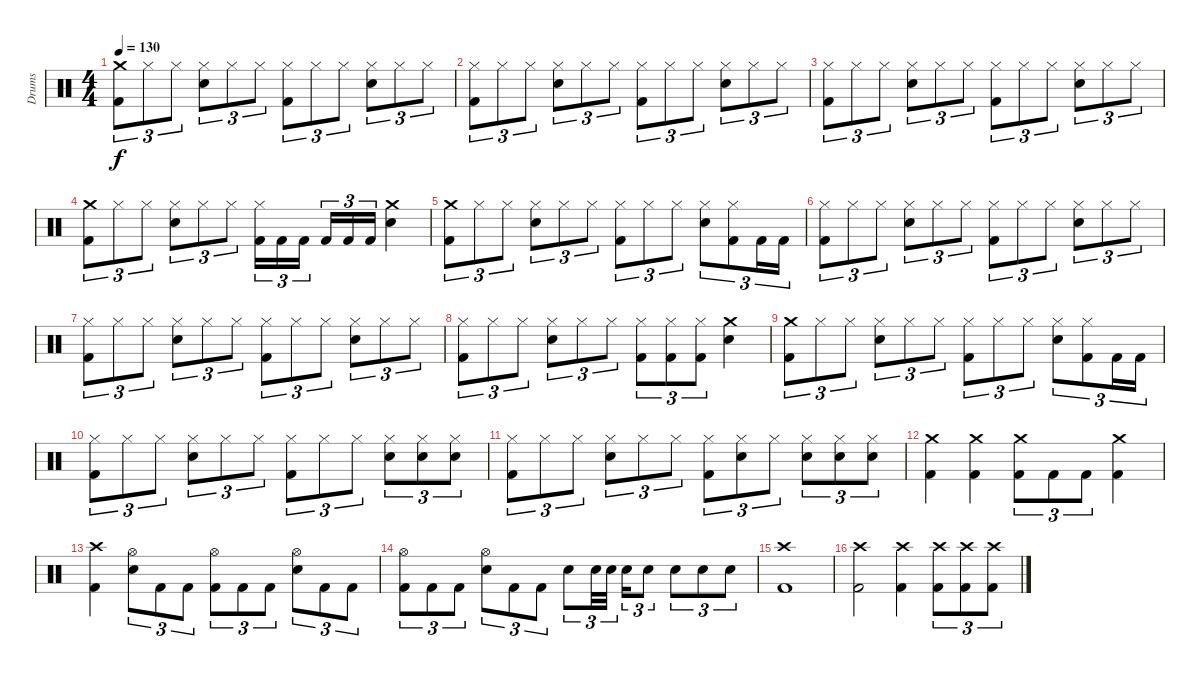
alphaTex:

\track ("Drums" "Drums") {instrument percussion}
\staff {score}
\articulation defaults
\ts (4 4)
\tempo 130
\clef neutral
\ks c
("Crash medium (hit)" "Kick (hit) 2").8{tu (3 2) dy f} "Hi-Hat (closed)".8{tu (3 2)} "Hi-Hat (closed)".8{tu (3 2)} ("Hi-Hat (closed)" "Electric Snare (hit)").8{tu (3 2)} "Hi-Hat (closed)".8{tu (3 2)} "Hi-Hat (closed)".8{tu (3 2)} ("Hi-Hat (closed)" "Kick (hit) 2").8{tu (3 2)} "Hi-Hat (closed)".8{tu (3 2)} "Hi-Hat (closed)".8{tu (3 2)} ("Hi-Hat (closed)" "Electric Snare (hit)").8{tu (3 2)} "Hi-Hat (closed)".8{tu (3 2)} "Hi-Hat (closed)".8{tu (3 2)} |
("Hi-Hat (closed)" "Kick (hit) 2").8{tu (3 2)} "Hi-Hat (closed)".8{tu (3 2)} "Hi-Hat (closed)".8{tu (3 2)} ("Hi-Hat (closed)" "Electric Snare (hit)").8{tu (3 2)} "Hi-Hat (closed)".8{tu (3 2)} "Hi-Hat (closed)".8{tu (3 2)} ("Hi-Hat (closed)" "Kick (hit) 2").8{tu (3 2)} "Hi-Hat (closed)".8{tu (3 2)} "Hi-Hat (closed)".8{tu (3 2)} ("Hi-Hat (closed)" "Electric Snare (hit)").8{tu (3 2)} "Hi-Hat (closed)".8{tu (3 2)} "Hi-Hat (closed)".8{tu (3 2)} |
("Hi-Hat (closed)" "Kick (hit) 2").8{tu (3 2)} "Hi-Hat (closed)".8{tu (3 2)} "Hi-Hat (closed)".8{tu (3 2)} ("Hi-Hat (closed)" "Electric Snare (hit)").8{tu (3 2)} "Hi-Hat (closed)".8{tu (3 2)} "Hi-Hat (closed)".8{tu (3 2)} ("Hi-Hat (closed)" "Kick (hit) 2").8{tu (3 2)} "Hi-Hat (closed)".8{tu (3 2)} "Hi-Hat (closed)".8{tu (3 2)} ("Hi-Hat (closed)" "Electric Snare (hit)").8{tu (3 2)} "Hi-Hat (closed)".8{tu (3 2)} "Hi-Hat (closed)".8{tu (3 2)} |
("Crash medium (hit)" "Kick (hit) 2").8{tu (3 2)} "Hi-Hat (closed)".8{tu (3 2)} "Hi-Hat (closed)".8{tu (3 2)} ("Hi-Hat (closed)" "Electric Snare (hit)").8{tu (3 2)} "Hi-Hat (closed)".8{tu (3 2)} "Hi-Hat (closed)".8{tu (3 2)} ("Hi-Hat (closed)" "Kick (hit) 2").16{tu (3 2)} "Kick (hit) 2".16{tu (3 2)} "Kick (hit) 2".16{tu (3 2) beam splitsecondary} "Kick (hit) 2".16{tu (3 2)} "Kick (hit) 2".16{tu (3 2)} "Kick (hit) 2".16{tu (3 2)} ("Crash medium (hit)" "Electric Snare (hit)").4 |
("Crash medium (hit)" "Kick (hit) 2").8{tu (3 2)} "Hi-Hat (closed)".8{tu (3 2)} "Hi-Hat (closed)".8{tu (3 2)} ("Hi-Hat (closed)" "Electric Snare (hit)").8{tu (3 2)} "Hi-Hat (closed)".8{tu (3 2)} "Hi-Hat (closed)".8{tu (3 2)} ("Hi-Hat (closed)" "Kick (hit) 2").8{tu (3 2)} "Hi-Hat (closed)".8{tu (3 2)} "Hi-Hat (closed)".8{tu (3 2)} ("Hi-Hat (closed)" "Electric Snare (hit)").8{tu (3 2)} ("Hi-Hat (closed)" "Kick (hit) 2").8{tu (3 2)} "Kick (hit) 2".16{tu (3 2)} "Kick (hit) 2".16{tu (3 2)} |
("Hi-Hat (closed)" "Kick (hit) 2").8{tu (3 2)} "Hi-Hat (closed)".8{tu (3 2)} "Hi-Hat (closed)".8{tu (3 2)} ("Hi-Hat (closed)" "Electric Snare (hit)").8{tu (3 2)} "Hi-Hat (closed)".8{tu (3 2)} "Hi-Hat (closed)".8{tu (3 2)} ("Hi-Hat (closed)" "Kick (hit) 2").8{tu (3 2)} "Hi-Hat (closed)".8{tu (3 2)} "Hi-Hat (closed)".8{tu (3 2)} ("Hi-Hat (closed)" "Electric Snare (hit)").8{tu (3 2)} "Hi-Hat (closed)".8{tu (3 2)} "Hi-Hat (closed)".8{tu (3 2)} |
("Hi-Hat (closed)" "Kick (hit) 2").8{tu (3 2)} "Hi-Hat (closed)".8{tu (3 2)} "Hi-Hat (closed)".8{tu (3 2)} ("Hi-Hat (closed)" "Electric Snare (hit)").8{tu (3 2)} "Hi-Hat (closed)".8{tu (3 2)} "Hi-Hat (closed)".8{tu (3 2)} ("Hi-Hat (closed)" "Kick (hit) 2").8{tu (3 2)} "Hi-Hat (closed)".8{tu (3 2)} "Hi-Hat (closed)".8{tu (3 2)} ("Hi-Hat (closed)" "Electric Snare (hit)").8{tu (3 2)} "Hi-Hat (closed)".8{tu (3 2)} "Hi-Hat (closed)".8{tu (3 2)} |
("Hi-Hat (closed)" "Kick (hit) 2").8{tu (3 2)} "Hi-Hat (closed)".8{tu (3 2)} "Hi-Hat (closed)".8{tu (3 2)} ("Hi-Hat (closed)" "Electric Snare (hit)").8{tu (3 2)} "Hi-Hat (closed)".8{tu (3 2)} "Hi-Hat (closed)".8{tu (3 2)} ("Hi-Hat (closed)" "Kick (hit) 2").8{tu (3 2)} ("Hi-Hat (closed)" "Kick (hit) 2").8{tu (3 2)} ("Hi-Hat (closed)" "Kick (hit) 2").8{tu (3 2)} ("Crash medium (hit)" "Electric Snare (hit)").4 |
("Crash medium (hit)" "Kick (hit) 2").8{tu (3 2)} "Hi-Hat (closed)".8{tu (3 2)} "Hi-Hat (closed)".8{tu (3 2)} ("Hi-Hat (closed)" "Electric Snare (hit)").8{tu (3 2)} "Hi-Hat (closed)".8{tu (3 2)} "Hi-Hat (closed)".8{tu (3 2)} ("Hi-Hat (closed)" "Kick (hit) 2").8{tu (3 2)} "Hi-Hat (closed)".8{tu (3 2)} "Hi-Hat (closed)".8{tu (3 2)} ("Hi-Hat (closed)" "Electric Snare (hit)").8{tu (3 2)} ("Hi-Hat (closed)" "Kick (hit) 2").8{tu (3 2)} "Kick (hit) 2".16{tu (3 2)} "Kick (hit) 2".16{tu (3 2)} |
("Hi-Hat (closed)" "Kick (hit) 2").8{tu (3 2)} "Hi-Hat (closed)".8{tu (3 2)} "Hi-Hat (closed)".8{tu (3 2)} ("Hi-Hat (closed)" "Electric Snare (hit)").8{tu (3 2)} "Hi-Hat (closed)".8{tu (3 2)} "Hi-Hat (closed)".8{tu (3 2)} ("Hi-Hat (closed)" "Kick (hit) 2").8{tu (3 2)} "Hi-Hat (closed)".8{tu (3 2)} "Hi-Hat (closed)".8{tu (3 2)} ("Hi-Hat (closed)" "Electric Snare (hit)").8{tu (3 2)} ("Hi-Hat (closed)" "Electric Snare (hit)").8{tu (3 2)} ("Hi-Hat (closed)" "Electric Snare (hit)").8{tu (3 2)} |
("Hi-Hat (closed)" "Kick (hit) 2").8{tu (3 2)} "Hi-Hat (closed)".8{tu (3 2)} "Hi-Hat (closed)".8{tu (3 2)} ("Hi-Hat (closed)" "Electric Snare (hit)").8{tu (3 2)} "Hi-Hat (closed)".8{tu (3 2)} "Hi-Hat (closed)".8{tu (3 2)} ("Hi-Hat (closed)" "Kick (hit) 2").8{tu (3 2)} ("Hi-Hat (closed)" "Electric Snare (hit)").8{tu (3 2)} "Hi-Hat (closed)".8{tu (3 2)} ("Hi-Hat (closed)" "Electric Snare (hit)").8{tu (3 2)} ("Hi-Hat (closed)" "Electric Snare (hit)").8{tu (3 2)} ("Hi-Hat (closed)" "Electric Snare (hit)").8{tu (3 2)} |
("Crash medium (hit)" "Kick (hit) 2").4 ("Crash medium (hit)" "Kick (hit) 2").4 ("Crash medium (hit)" "Kick (hit) 2").8{tu (3 2)} "Kick (hit) 2".8{tu (3 2)} "Kick (hit) 2".8{tu (3 2)} ("Crash medium (hit)" "Kick (hit) 2").4 |
("Crash high (hit)" "Kick (hit) 2").4 ("Hi-Hat (open)" "Electric Snare (hit)").8{tu (3 2)} "Kick (hit) 2".8{tu (3 2)} "Kick (hit) 2".8{tu (3 2)} ("Hi-Hat (open)" "Kick (hit) 2").8{tu (3 2)} "Kick (hit) 2".8{tu (3 2)} "Kick (hit) 2".8{tu (3 2)} ("Hi-Hat (open)" "Electric Snare (hit)").8{tu (3 2)} "Kick (hit) 2".8{tu (3 2)} "Kick (hit) 2".8{tu (3 2)} |
("Hi-Hat (open)" "Kick (hit) 2").8{tu (3 2)} "Kick (hit) 2".8{tu (3 2)} "Kick (hit) 2".8{tu (3 2)} ("Hi-Hat (open)" "Electric Snare (hit)").8{tu (3 2)} "Kick (hit) 2".8{tu (3 2)} "Kick (hit) 2".8{tu (3 2)} "Electric Snare (hit)".8{tu (3 2)} "Electric Snare (hit)".32{tu (3 2)} "Electric Snare (hit)".32{tu (3 2) beam splitsecondary} "Electric Snare (hit)".16{tu (3 2)} "Electric Snare (hit)".8{tu (3 2)} "Electric Snare (hit)".8{tu (3 2)} "Electric Snare (hit)".8{tu (3 2)} "Electric Snare (hit)".8{tu (3 2)} |
("Crash high (hit)" "Kick (hit) 2").1 |
("Crash high (hit)" "Kick (hit) 2").2 ("Crash high (hit)" "Kick (hit) 2").4 ("Crash high (hit)" "Kick (hit) 2").8{tu (3 2)} ("Crash high (hit)" "Kick (hit) 2").8{tu (3 2)} ("Crash high (hit)" "Kick (hit) 2").8{tu (3 2)}
